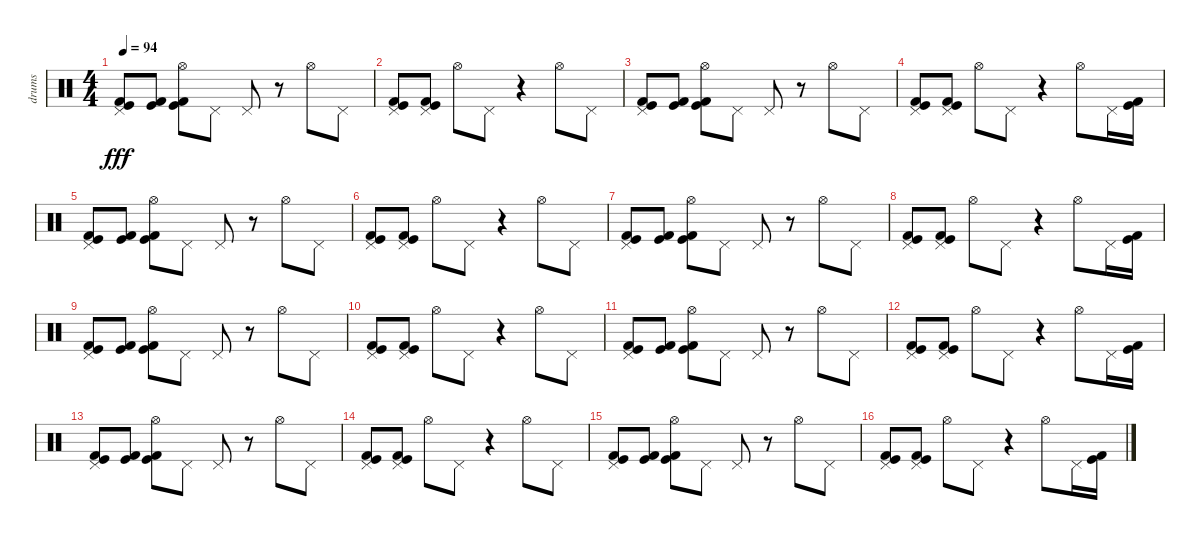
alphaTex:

\track ("drums" "drums") {instrument percussion}
\staff {score}
\articulation defaults
\ts (4 4)
\tempo 94
\clef neutral
\ks c
("Pedal Hi-Hat (hit)" "Kick (hit) 2" "Kick (hit)").8{dy fff} ("Kick (hit) 2" "Kick (hit)").8 ("Hi-Hat (open)" "Kick (hit) 2" "Kick (hit)").8 "Pedal Hi-Hat (hit)".8 "Pedal Hi-Hat (hit)".8 r.8 "Hi-Hat (open)".8 "Pedal Hi-Hat (hit)".8 |
("Kick (hit)" "Kick (hit) 2" "Pedal Hi-Hat (hit)").8 ("Kick (hit) 2" "Kick (hit)" "Pedal Hi-Hat (hit)").8 "Hi-Hat (open)".8 "Pedal Hi-Hat (hit)".8 r.4 "Hi-Hat (open)".8 "Pedal Hi-Hat (hit)".8 |
("Kick (hit)" "Kick (hit) 2" "Pedal Hi-Hat (hit)").8 ("Kick (hit) 2" "Kick (hit)").8 ("Hi-Hat (open)" "Kick (hit) 2" "Kick (hit)").8 "Pedal Hi-Hat (hit)".8 "Pedal Hi-Hat (hit)".8 r.8 "Hi-Hat (open)".8 "Pedal Hi-Hat (hit)".8 |
("Kick (hit)" "Kick (hit) 2" "Pedal Hi-Hat (hit)").8 ("Kick (hit) 2" "Kick (hit)" "Pedal Hi-Hat (hit)").8 "Hi-Hat (open)".8 "Pedal Hi-Hat (hit)".8 r.4 "Hi-Hat (open)".8 "Pedal Hi-Hat (hit)".16 ("Kick (hit) 2" "Kick (hit)").16 |
("Pedal Hi-Hat (hit)" "Kick (hit) 2" "Kick (hit)").8 ("Kick (hit) 2" "Kick (hit)").8 ("Hi-Hat (open)" "Kick (hit) 2" "Kick (hit)").8 "Pedal Hi-Hat (hit)".8 "Pedal Hi-Hat (hit)".8 r.8 "Hi-Hat (open)".8 "Pedal Hi-Hat (hit)".8 |
("Kick (hit)" "Kick (hit) 2" "Pedal Hi-Hat (hit)").8 ("Kick (hit) 2" "Kick (hit)" "Pedal Hi-Hat (hit)").8 "Hi-Hat (open)".8 "Pedal Hi-Hat (hit)".8 r.4 "Hi-Hat (open)".8 "Pedal Hi-Hat (hit)".8 |
("Kick (hit)" "Kick (hit) 2" "Pedal Hi-Hat (hit)").8 ("Kick (hit) 2" "Kick (hit)").8 ("Hi-Hat (open)" "Kick (hit) 2" "Kick (hit)").8 "Pedal Hi-Hat (hit)".8 "Pedal Hi-Hat (hit)".8 r.8 "Hi-Hat (open)".8 "Pedal Hi-Hat (hit)".8 |
("Kick (hit)" "Kick (hit) 2" "Pedal Hi-Hat (hit)").8 ("Kick (hit) 2" "Kick (hit)" "Pedal Hi-Hat (hit)").8 "Hi-Hat (open)".8 "Pedal Hi-Hat (hit)".8 r.4 "Hi-Hat (open)".8 "Pedal Hi-Hat (hit)".16 ("Kick (hit) 2" "Kick (hit)").16 |
("Pedal Hi-Hat (hit)" "Kick (hit) 2" "Kick (hit)").8 ("Kick (hit) 2" "Kick (hit)").8 ("Hi-Hat (open)" "Kick (hit) 2" "Kick (hit)").8 "Pedal Hi-Hat (hit)".8 "Pedal Hi-Hat (hit)".8 r.8 "Hi-Hat (open)".8 "Pedal Hi-Hat (hit)".8 |
("Kick (hit)" "Kick (hit) 2" "Pedal Hi-Hat (hit)").8 ("Kick (hit) 2" "Kick (hit)" "Pedal Hi-Hat (hit)").8 "Hi-Hat (open)".8 "Pedal Hi-Hat (hit)".8 r.4 "Hi-Hat (open)".8 "Pedal Hi-Hat (hit)".8 |
("Kick (hit)" "Kick (hit) 2" "Pedal Hi-Hat (hit)").8 ("Kick (hit) 2" "Kick (hit)").8 ("Hi-Hat (open)" "Kick (hit) 2" "Kick (hit)").8 "Pedal Hi-Hat (hit)".8 "Pedal Hi-Hat (hit)".8 r.8 "Hi-Hat (open)".8 "Pedal Hi-Hat (hit)".8 |
("Kick (hit)" "Kick (hit) 2" "Pedal Hi-Hat (hit)").8 ("Kick (hit) 2" "Kick (hit)" "Pedal Hi-Hat (hit)").8 "Hi-Hat (open)".8 "Pedal Hi-Hat (hit)".8 r.4 "Hi-Hat (open)".8 "Pedal Hi-Hat (hit)".16 ("Kick (hit) 2" "Kick (hit)").16 |
("Pedal Hi-Hat (hit)" "Kick (hit) 2" "Kick (hit)").8 ("Kick (hit) 2" "Kick (hit)").8 ("Hi-Hat (open)" "Kick (hit) 2" "Kick (hit)").8 "Pedal Hi-Hat (hit)".8 "Pedal Hi-Hat (hit)".8 r.8 "Hi-Hat (open)".8 "Pedal Hi-Hat (hit)".8 |
("Kick (hit)" "Kick (hit) 2" "Pedal Hi-Hat (hit)").8 ("Kick (hit) 2" "Kick (hit)" "Pedal Hi-Hat (hit)").8 "Hi-Hat (open)".8 "Pedal Hi-Hat (hit)".8 r.4 "Hi-Hat (open)".8 "Pedal Hi-Hat (hit)".8 |
("Kick (hit)" "Kick (hit) 2" "Pedal Hi-Hat (hit)").8 ("Kick (hit) 2" "Kick (hit)").8 ("Hi-Hat (open)" "Kick (hit) 2" "Kick (hit)").8 "Pedal Hi-Hat (hit)".8 "Pedal Hi-Hat (hit)".8 r.8 "Hi-Hat (open)".8 "Pedal Hi-Hat (hit)".8 |
("Kick (hit)" "Kick (hit) 2" "Pedal Hi-Hat (hit)").8 ("Kick (hit) 2" "Kick (hit)" "Pedal Hi-Hat (hit)").8 "Hi-Hat (open)".8 "Pedal Hi-Hat (hit)".8 r.4 "Hi-Hat (open)".8 "Pedal Hi-Hat (hit)".16 ("Kick (hit) 2" "Kick (hit)").16
